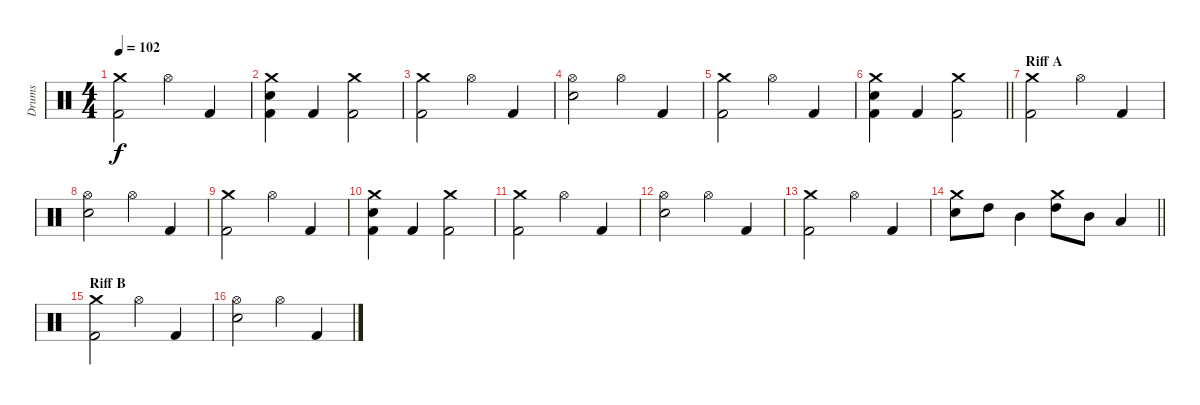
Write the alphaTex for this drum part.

\track ("Drums" "Drums") {instrument percussion}
\staff {score}
\articulation defaults
\ts (4 4)
\tempo 102
\clef neutral
\ks c
("Crash medium (hit)" "Kick (hit) 2").2{dy f} "Hi-Hat (open)".4 "Kick (hit) 2".4 |
("Crash medium (hit)" "Electric Snare (hit)" "Kick (hit) 2").4 "Kick (hit) 2".4 ("Crash medium (hit)" "Kick (hit) 2").2 |
("Crash medium (hit)" "Kick (hit) 2").2 "Hi-Hat (open)".4 "Kick (hit) 2".4 |
("Hi-Hat (open)" "Electric Snare (hit)").2 "Hi-Hat (open)".4 "Kick (hit) 2".4 |
("Crash medium (hit)" "Kick (hit) 2").2 "Hi-Hat (open)".4 "Kick (hit) 2".4 |
\barLineRight lightlight
("Crash medium (hit)" "Electric Snare (hit)" "Kick (hit) 2").4 "Kick (hit) 2".4 ("Crash medium (hit)" "Kick (hit) 2").2 |
\section ("" "Riff A")
("Crash medium (hit)" "Kick (hit) 2").2 "Hi-Hat (open)".4 "Kick (hit) 2".4 |
("Hi-Hat (open)" "Electric Snare (hit)").2 "Hi-Hat (open)".4 "Kick (hit) 2".4 |
("Crash medium (hit)" "Kick (hit) 2").2 "Hi-Hat (open)".4 "Kick (hit) 2".4 |
("Crash medium (hit)" "Electric Snare (hit)" "Kick (hit) 2").4 "Kick (hit) 2".4 ("Crash medium (hit)" "Kick (hit) 2").2 |
("Crash medium (hit)" "Kick (hit) 2").2 "Hi-Hat (open)".4 "Kick (hit) 2".4 |
("Hi-Hat (open)" "Electric Snare (hit)").2 "Hi-Hat (open)".4 "Kick (hit) 2".4 |
("Crash medium (hit)" "Kick (hit) 2").2 "Hi-Hat (open)".4 "Kick (hit) 2".4 |
\barLineRight lightlight
("Crash medium (hit)" "Electric Snare (hit)").8 "High Tom (hit)".8 "Mid Tom (hit)".4 ("Crash medium (hit)" "High Tom (hit)").8 "Mid Tom (hit)".8 "Low Tom (hit)".4 |
\section ("" "Riff B")
("Crash medium (hit)" "Kick (hit) 2").2 "Hi-Hat (open)".4 "Kick (hit) 2".4 |
("Hi-Hat (open)" "Electric Snare (hit)").2 "Hi-Hat (open)".4 "Kick (hit) 2".4
